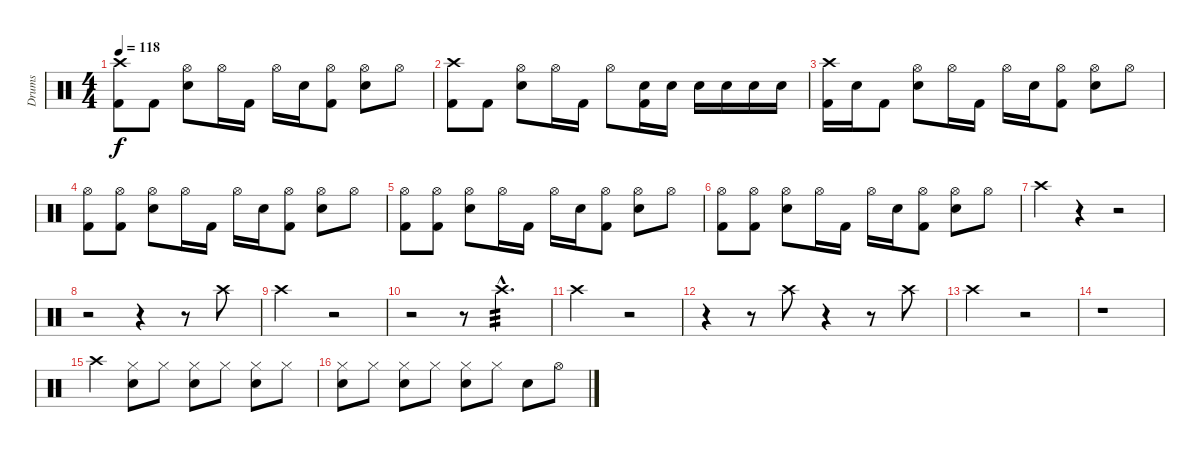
\track ("Drums" "Drums") {instrument percussion}
\staff {score}
\articulation defaults
\ts (4 4)
\tempo 118
\clef neutral
\ks c
("Crash high (hit)" "Kick (hit) 2").8{dy f} "Kick (hit) 2".8 ("Hi-Hat (open)" "Electric Snare (hit)").8 "Hi-Hat (open)".16 "Kick (hit) 2".16 "Hi-Hat (open)".16 "Electric Snare (hit)".16 ("Hi-Hat (open)" "Kick (hit) 2").8 ("Hi-Hat (open)" "Electric Snare (hit)").8 "Hi-Hat (open)".8 |
("Crash high (hit)" "Kick (hit) 2").8 "Kick (hit) 2".8 ("Hi-Hat (open)" "Electric Snare (hit)").8 "Hi-Hat (open)".16 "Kick (hit) 2".16 "Hi-Hat (open)".8 ("Electric Snare (hit)" "Kick (hit) 2").16 "Electric Snare (hit)".16 "Electric Snare (hit)".16 "Electric Snare (hit)".16 "Electric Snare (hit)".16 "Electric Snare (hit)".16 |
("Crash high (hit)" "Kick (hit) 2").16 "Electric Snare (hit)".16 "Kick (hit) 2".8 ("Hi-Hat (open)" "Electric Snare (hit)").8 "Hi-Hat (open)".16 "Kick (hit) 2".16 "Hi-Hat (open)".16 "Electric Snare (hit)".16 ("Hi-Hat (open)" "Kick (hit) 2").8 ("Hi-Hat (open)" "Electric Snare (hit)").8 "Hi-Hat (open)".8 |
("Hi-Hat (open)" "Kick (hit) 2").8 ("Hi-Hat (open)" "Kick (hit) 2").8 ("Hi-Hat (open)" "Electric Snare (hit)").8 "Hi-Hat (open)".16 "Kick (hit) 2".16 "Hi-Hat (open)".16 "Electric Snare (hit)".16 ("Hi-Hat (open)" "Kick (hit) 2").8 ("Hi-Hat (open)" "Electric Snare (hit)").8 "Hi-Hat (open)".8 |
("Hi-Hat (open)" "Kick (hit) 2").8 ("Hi-Hat (open)" "Kick (hit) 2").8 ("Hi-Hat (open)" "Electric Snare (hit)").8 "Hi-Hat (open)".16 "Kick (hit) 2".16 "Hi-Hat (open)".16 "Electric Snare (hit)".16 ("Hi-Hat (open)" "Kick (hit) 2").8 ("Hi-Hat (open)" "Electric Snare (hit)").8 "Hi-Hat (open)".8 |
("Hi-Hat (open)" "Kick (hit) 2").8 ("Hi-Hat (open)" "Kick (hit) 2").8 ("Hi-Hat (open)" "Electric Snare (hit)").8 "Hi-Hat (open)".16 "Kick (hit) 2".16 "Hi-Hat (open)".16 "Electric Snare (hit)".16 ("Hi-Hat (open)" "Kick (hit) 2").8 ("Hi-Hat (open)" "Electric Snare (hit)").8 "Hi-Hat (open)".8 |
"Crash high (hit)".4 r.4 r.2 |
r.2 r.4 r.8 "Crash high (hit)".8 |
"Crash high (hit)".2 r.2 |
r.2 r.8 "Crash high (hit)"{hac}.4{d tp 3} |
"Crash high (hit)".2 r.2 |
r.4 r.8 "Crash high (hit)".8 r.4 r.8 "Crash high (hit)".8 |
"Crash high (hit)".2 r.2 |
r.1 |
"Crash high (hit)".4 ("Hi-Hat (closed)" "Electric Snare (hit)").8 "Hi-Hat (closed)".8 ("Hi-Hat (closed)" "Electric Snare (hit)").8 "Hi-Hat (closed)".8 ("Hi-Hat (closed)" "Electric Snare (hit)").8 "Hi-Hat (closed)".8 |
("Hi-Hat (closed)" "Electric Snare (hit)").8 "Hi-Hat (closed)".8 ("Hi-Hat (closed)" "Electric Snare (hit)").8 "Hi-Hat (closed)".8 ("Hi-Hat (closed)" "Electric Snare (hit)").8 "Hi-Hat (closed)".8 "Electric Snare (hit)".8 "Hi-Hat (open)".8
